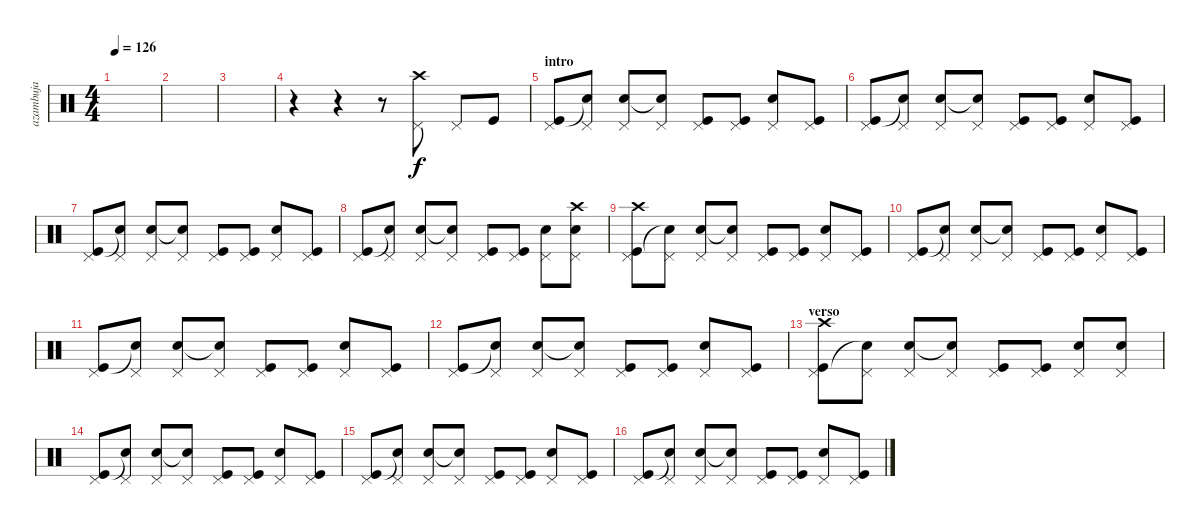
\track ("azambuja" "azambuja") {instrument percussion}
\staff {score}
\articulation defaults
\ts (4 4)
\tempo 126
\clef neutral
\ks c
|
|
|
r.4 r.4 r.8 ("Crash high (hit)" "Pedal Hi-Hat (hit)").8 "Pedal Hi-Hat (hit)".8 "Kick (hit)".8 |
\section ("" "intro")
("Pedal Hi-Hat (hit)" "Kick (hit)").8 ("Pedal Hi-Hat (hit)" "Snare (hit)"{t}).8 ("Pedal Hi-Hat (hit)" "Snare (hit) 2").8 ("Pedal Hi-Hat (hit)" "Snare (hit) 2"{t}).8 ("Pedal Hi-Hat (hit)" "Kick (hit)").8 ("Pedal Hi-Hat (hit)" "Kick (hit)").8 ("Pedal Hi-Hat (hit)" "Snare (hit) 2").8 ("Pedal Hi-Hat (hit)" "Kick (hit)").8 |
("Pedal Hi-Hat (hit)" "Kick (hit)").8 ("Pedal Hi-Hat (hit)" "Snare (hit)"{t}).8 ("Pedal Hi-Hat (hit)" "Snare (hit) 2").8 ("Pedal Hi-Hat (hit)" "Snare (hit) 2"{t}).8 ("Pedal Hi-Hat (hit)" "Kick (hit)").8 ("Pedal Hi-Hat (hit)" "Kick (hit)").8 ("Pedal Hi-Hat (hit)" "Snare (hit) 2").8 ("Pedal Hi-Hat (hit)" "Kick (hit)").8 |
("Pedal Hi-Hat (hit)" "Kick (hit)").8 ("Pedal Hi-Hat (hit)" "Snare (hit)"{t}).8 ("Pedal Hi-Hat (hit)" "Snare (hit) 2").8 ("Pedal Hi-Hat (hit)" "Snare (hit) 2"{t}).8 ("Pedal Hi-Hat (hit)" "Kick (hit)").8 ("Pedal Hi-Hat (hit)" "Kick (hit)").8 ("Pedal Hi-Hat (hit)" "Snare (hit) 2").8 ("Pedal Hi-Hat (hit)" "Kick (hit)").8 |
("Pedal Hi-Hat (hit)" "Kick (hit)").8 ("Pedal Hi-Hat (hit)" "Snare (hit)"{t}).8 ("Pedal Hi-Hat (hit)" "Snare (hit) 2").8 ("Pedal Hi-Hat (hit)" "Snare (hit) 2"{t}).8 ("Pedal Hi-Hat (hit)" "Kick (hit)").8 ("Pedal Hi-Hat (hit)" "Kick (hit)").8 ("Pedal Hi-Hat (hit)" "Snare (hit) 2").8 ("Crash high (hit)" "Pedal Hi-Hat (hit)" "Snare (hit) 2").8 |
("Crash high (hit)" "Pedal Hi-Hat (hit)" "Kick (hit)").8 ("Pedal Hi-Hat (hit)" "Snare (hit)"{t}).8 ("Pedal Hi-Hat (hit)" "Snare (hit) 2").8 ("Pedal Hi-Hat (hit)" "Snare (hit) 2"{t}).8 ("Pedal Hi-Hat (hit)" "Kick (hit)").8 ("Pedal Hi-Hat (hit)" "Kick (hit)").8 ("Pedal Hi-Hat (hit)" "Snare (hit) 2").8 ("Pedal Hi-Hat (hit)" "Kick (hit)").8 |
("Pedal Hi-Hat (hit)" "Kick (hit)").8 ("Pedal Hi-Hat (hit)" "Snare (hit)"{t}).8 ("Pedal Hi-Hat (hit)" "Snare (hit) 2").8 ("Pedal Hi-Hat (hit)" "Snare (hit) 2"{t}).8 ("Pedal Hi-Hat (hit)" "Kick (hit)").8 ("Pedal Hi-Hat (hit)" "Kick (hit)").8 ("Pedal Hi-Hat (hit)" "Snare (hit) 2").8 ("Pedal Hi-Hat (hit)" "Kick (hit)").8 |
("Pedal Hi-Hat (hit)" "Kick (hit)").8 ("Pedal Hi-Hat (hit)" "Snare (hit)"{t}).8 ("Pedal Hi-Hat (hit)" "Snare (hit) 2").8 ("Pedal Hi-Hat (hit)" "Snare (hit) 2"{t}).8 ("Pedal Hi-Hat (hit)" "Kick (hit)").8 ("Pedal Hi-Hat (hit)" "Kick (hit)").8 ("Pedal Hi-Hat (hit)" "Snare (hit) 2").8 ("Pedal Hi-Hat (hit)" "Kick (hit)").8 |
("Pedal Hi-Hat (hit)" "Kick (hit)").8 ("Pedal Hi-Hat (hit)" "Snare (hit)"{t}).8 ("Pedal Hi-Hat (hit)" "Snare (hit) 2").8 ("Pedal Hi-Hat (hit)" "Snare (hit) 2"{t}).8 ("Pedal Hi-Hat (hit)" "Kick (hit)").8 ("Pedal Hi-Hat (hit)" "Kick (hit)").8 ("Pedal Hi-Hat (hit)" "Snare (hit) 2").8 ("Pedal Hi-Hat (hit)" "Kick (hit)").8 |
\section ("" "verso")
("Crash high (hit)" "Pedal Hi-Hat (hit)" "Kick (hit)").8 ("Pedal Hi-Hat (hit)" "Snare (hit)"{t}).8 ("Pedal Hi-Hat (hit)" "Snare (hit) 2").8 ("Pedal Hi-Hat (hit)" "Snare (hit) 2"{t}).8 ("Pedal Hi-Hat (hit)" "Kick (hit)").8 ("Pedal Hi-Hat (hit)" "Kick (hit)").8 ("Pedal Hi-Hat (hit)" "Snare (hit) 2").8 ("Pedal Hi-Hat (hit)" "Snare (hit) 2").8 |
("Pedal Hi-Hat (hit)" "Kick (hit)").8 ("Pedal Hi-Hat (hit)" "Snare (hit)"{t}).8 ("Pedal Hi-Hat (hit)" "Snare (hit) 2").8 ("Pedal Hi-Hat (hit)" "Snare (hit) 2"{t}).8 ("Pedal Hi-Hat (hit)" "Kick (hit)").8 ("Pedal Hi-Hat (hit)" "Kick (hit)").8 ("Pedal Hi-Hat (hit)" "Snare (hit) 2").8 ("Pedal Hi-Hat (hit)" "Kick (hit)").8 |
("Pedal Hi-Hat (hit)" "Kick (hit)").8 ("Pedal Hi-Hat (hit)" "Snare (hit)"{t}).8 ("Pedal Hi-Hat (hit)" "Snare (hit) 2").8 ("Pedal Hi-Hat (hit)" "Snare (hit) 2"{t}).8 ("Pedal Hi-Hat (hit)" "Kick (hit)").8 ("Pedal Hi-Hat (hit)" "Kick (hit)").8 ("Pedal Hi-Hat (hit)" "Snare (hit) 2").8 ("Pedal Hi-Hat (hit)" "Kick (hit)").8 |
("Pedal Hi-Hat (hit)" "Kick (hit)").8 ("Pedal Hi-Hat (hit)" "Snare (hit)"{t}).8 ("Pedal Hi-Hat (hit)" "Snare (hit) 2").8 ("Pedal Hi-Hat (hit)" "Snare (hit) 2"{t}).8 ("Pedal Hi-Hat (hit)" "Kick (hit)").8 ("Pedal Hi-Hat (hit)" "Kick (hit)").8 ("Pedal Hi-Hat (hit)" "Snare (hit) 2").8 ("Pedal Hi-Hat (hit)" "Kick (hit)").8
